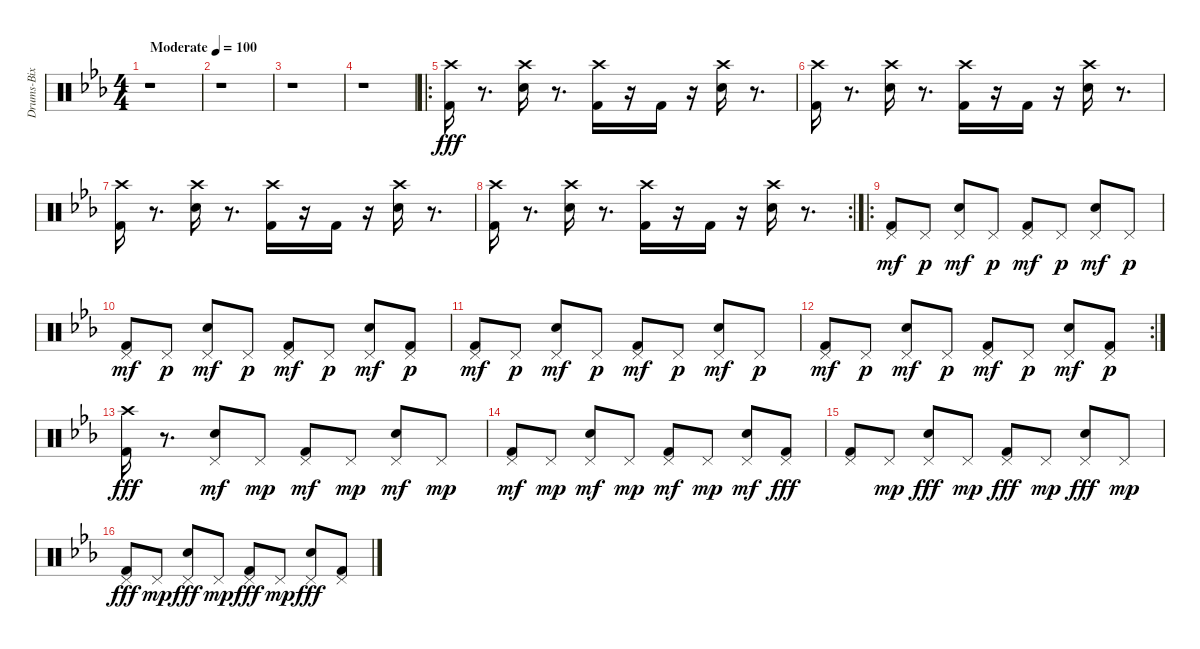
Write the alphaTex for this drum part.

\track ("Drums-Bix" "Drums-Bix") {instrument percussion}
\staff {score}
\articulation defaults
\ts (4 4)
\tempo (100 "Moderate")
\clef neutral
\ks eb
r.1{dy fff} |
r.1 |
r.1 |
r.1 |
\ro
("Crash high (hit)" "Kick (hit) 2").16 r.8{d} ("Crash high (hit)" "Electric Snare (hit)").16 r.8{d} ("Crash high (hit)" "Kick (hit) 2").16 r.16 "Kick (hit) 2".16 r.16 ("Crash high (hit)" "Electric Snare (hit)").16 r.8{d} |
("Crash high (hit)" "Kick (hit) 2").16 r.8{d} ("Crash high (hit)" "Electric Snare (hit)").16 r.8{d} ("Crash high (hit)" "Kick (hit) 2").16 r.16 "Kick (hit) 2".16 r.16 ("Crash high (hit)" "Electric Snare (hit)").16 r.8{d} |
("Crash high (hit)" "Kick (hit) 2").16 r.8{d} ("Crash high (hit)" "Electric Snare (hit)").16 r.8{d} ("Crash high (hit)" "Kick (hit) 2").16 r.16 "Kick (hit) 2".16 r.16 ("Crash high (hit)" "Electric Snare (hit)").16 r.8{d} |
\rc 2
("Crash high (hit)" "Kick (hit) 2").16 r.8{d} ("Crash high (hit)" "Electric Snare (hit)").16 r.8{d} ("Crash high (hit)" "Kick (hit) 2").16 r.16 "Kick (hit) 2".16 r.16 ("Crash high (hit)" "Electric Snare (hit)").16 r.8{d} |
\ro
("Kick (hit) 2" "Pedal Hi-Hat (hit)").8{dy mf} "Pedal Hi-Hat (hit)".8{dy p} ("Electric Snare (hit)" "Pedal Hi-Hat (hit)").8{dy mf} "Pedal Hi-Hat (hit)".8{dy p} ("Kick (hit) 2" "Pedal Hi-Hat (hit)").8{dy mf} "Pedal Hi-Hat (hit)".8{dy p} ("Electric Snare (hit)" "Pedal Hi-Hat (hit)").8{dy mf} "Pedal Hi-Hat (hit)".8{dy p} |
("Kick (hit) 2" "Pedal Hi-Hat (hit)").8{dy mf} "Pedal Hi-Hat (hit)".8{dy p} ("Electric Snare (hit)" "Pedal Hi-Hat (hit)").8{dy mf} "Pedal Hi-Hat (hit)".8{dy p} ("Kick (hit) 2" "Pedal Hi-Hat (hit)").8{dy mf} "Pedal Hi-Hat (hit)".8{dy p} ("Electric Snare (hit)" "Pedal Hi-Hat (hit)").8{dy mf} ("Kick (hit) 2" "Pedal Hi-Hat (hit)").8{dy p} |
("Kick (hit) 2" "Pedal Hi-Hat (hit)").8{dy mf} "Pedal Hi-Hat (hit)".8{dy p} ("Electric Snare (hit)" "Pedal Hi-Hat (hit)").8{dy mf} "Pedal Hi-Hat (hit)".8{dy p} ("Kick (hit) 2" "Pedal Hi-Hat (hit)").8{dy mf} "Pedal Hi-Hat (hit)".8{dy p} ("Electric Snare (hit)" "Pedal Hi-Hat (hit)").8{dy mf} "Pedal Hi-Hat (hit)".8{dy p} |
\rc 2
("Kick (hit) 2" "Pedal Hi-Hat (hit)").8{dy mf} "Pedal Hi-Hat (hit)".8{dy p} ("Electric Snare (hit)" "Pedal Hi-Hat (hit)").8{dy mf} "Pedal Hi-Hat (hit)".8{dy p} ("Kick (hit) 2" "Pedal Hi-Hat (hit)").8{dy mf} "Pedal Hi-Hat (hit)".8{dy p} ("Electric Snare (hit)" "Pedal Hi-Hat (hit)").8{dy mf} ("Kick (hit) 2" "Pedal Hi-Hat (hit)").8{dy p} |
("Kick (hit) 2" "Crash high (hit)").16{dy fff} r.8{d} ("Electric Snare (hit)" "Pedal Hi-Hat (hit)").8{dy mf} "Pedal Hi-Hat (hit)".8{dy mp} ("Kick (hit) 2" "Pedal Hi-Hat (hit)").8{dy mf} "Pedal Hi-Hat (hit)".8{dy mp} ("Electric Snare (hit)" "Pedal Hi-Hat (hit)").8{dy mf} "Pedal Hi-Hat (hit)".8{dy mp} |
("Kick (hit) 2" "Pedal Hi-Hat (hit)").8{dy mf} "Pedal Hi-Hat (hit)".8{dy mp} ("Electric Snare (hit)" "Pedal Hi-Hat (hit)").8{dy mf} "Pedal Hi-Hat (hit)".8{dy mp} ("Kick (hit) 2" "Pedal Hi-Hat (hit)").8{dy mf} "Pedal Hi-Hat (hit)".8{dy mp} ("Electric Snare (hit)" "Pedal Hi-Hat (hit)").8{dy mf} ("Pedal Hi-Hat (hit)" "Kick (hit) 2").8{dy fff} |
("Pedal Hi-Hat (hit)" "Kick (hit) 2").8 "Pedal Hi-Hat (hit)".8{dy mp} ("Pedal Hi-Hat (hit)" "Electric Snare (hit)").8{dy fff} "Pedal Hi-Hat (hit)".8{dy mp} ("Pedal Hi-Hat (hit)" "Kick (hit) 2").8{dy fff} "Pedal Hi-Hat (hit)".8{dy mp} ("Pedal Hi-Hat (hit)" "Electric Snare (hit)").8{dy fff} "Pedal Hi-Hat (hit)".8{dy mp} |
("Pedal Hi-Hat (hit)" "Kick (hit) 2").8{dy fff} "Pedal Hi-Hat (hit)".8{dy mp} ("Pedal Hi-Hat (hit)" "Electric Snare (hit)").8{dy fff} "Pedal Hi-Hat (hit)".8{dy mp} ("Pedal Hi-Hat (hit)" "Kick (hit) 2").8{dy fff} "Pedal Hi-Hat (hit)".8{dy mp} ("Pedal Hi-Hat (hit)" "Electric Snare (hit)").8{dy fff} ("Pedal Hi-Hat (hit)" "Kick (hit) 2").8
